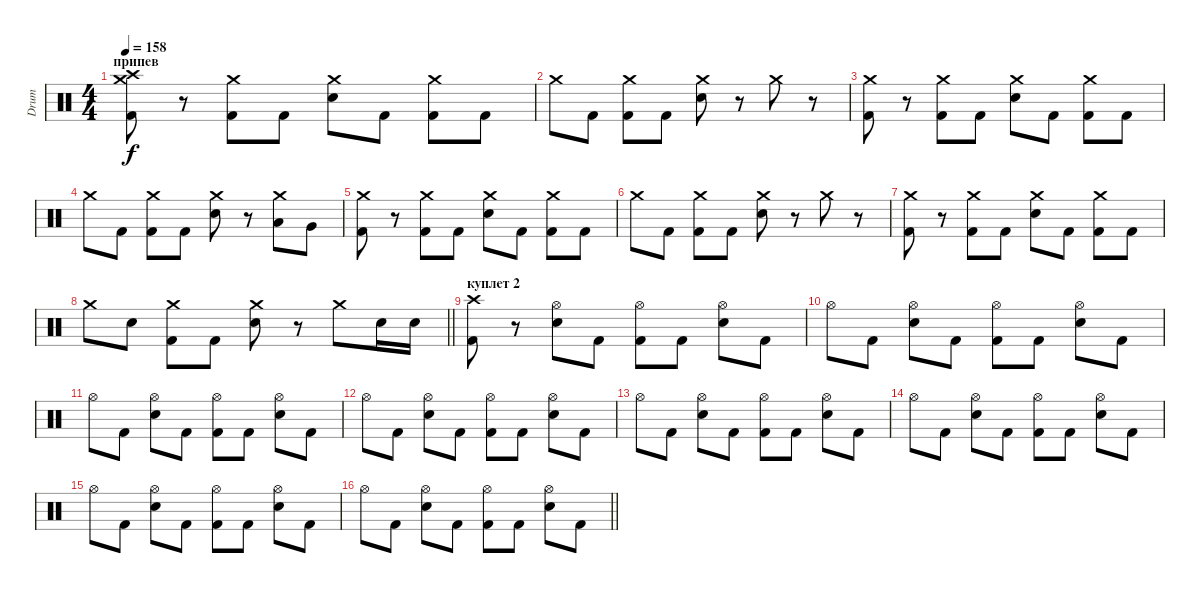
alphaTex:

\track ("Drum" "Drum") {instrument percussion}
\staff {score}
\articulation defaults
\ts (4 4)
\section ("" "припев")
\tempo 158
\clef neutral
\ks c
("Crash medium (hit)" "Crash high (hit)" "Kick (hit) 2").8{dy f} r.8 ("Crash medium (hit)" "Kick (hit) 2").8 "Kick (hit) 2".8 ("Crash medium (hit)" "Electric Snare (hit)").8 "Kick (hit) 2".8 ("Crash medium (hit)" "Kick (hit) 2").8 "Kick (hit) 2".8 |
"Crash medium (hit)".8 "Kick (hit) 2".8 ("Crash medium (hit)" "Kick (hit) 2").8 "Kick (hit) 2".8 ("Crash medium (hit)" "Electric Snare (hit)").8 r.8 "Crash medium (hit)".8 r.8 |
("Crash medium (hit)" "Kick (hit) 2").8 r.8 ("Crash medium (hit)" "Kick (hit) 2").8 "Kick (hit) 2".8 ("Crash medium (hit)" "Electric Snare (hit)").8 "Kick (hit) 2".8 ("Crash medium (hit)" "Kick (hit) 2").8 "Kick (hit) 2".8 |
"Crash medium (hit)".8 "Kick (hit) 2".8 ("Crash medium (hit)" "Kick (hit) 2").8 "Kick (hit) 2".8 ("Crash medium (hit)" "Electric Snare (hit)").8 r.8 ("Crash medium (hit)" "Low Tom (hit)").8 "Very Low Tom (hit)".8 |
("Crash medium (hit)" "Kick (hit) 2").8 r.8 ("Crash medium (hit)" "Kick (hit) 2").8 "Kick (hit) 2".8 ("Crash medium (hit)" "Electric Snare (hit)").8 "Kick (hit) 2".8 ("Crash medium (hit)" "Kick (hit) 2").8 "Kick (hit) 2".8 |
"Crash medium (hit)".8 "Kick (hit) 2".8 ("Crash medium (hit)" "Kick (hit) 2").8 "Kick (hit) 2".8 ("Crash medium (hit)" "Electric Snare (hit)").8 r.8 "Crash medium (hit)".8 r.8 |
("Crash medium (hit)" "Kick (hit) 2").8 r.8 ("Crash medium (hit)" "Kick (hit) 2").8 "Kick (hit) 2".8 ("Crash medium (hit)" "Electric Snare (hit)").8 "Kick (hit) 2".8 ("Crash medium (hit)" "Kick (hit) 2").8 "Kick (hit) 2".8 |
\barLineRight lightlight "Crash medium (hit)".8 "Electric Snare (hit)".8
("Crash medium (hit)" "Kick (hit) 2").8 "Kick (hit) 2".8 ("Crash medium (hit)" "Electric Snare (hit)").8 r.8 "Crash medium (hit)".8 "Electric Snare (hit)".16 "Electric Snare (hit)".16 |
\section ("" "куплет 2")
("Crash high (hit)" "Kick (hit) 2").8 r.8 ("Hi-Hat (open)" "Electric Snare (hit)").8 "Kick (hit) 2".8 ("Hi-Hat (open)" "Kick (hit) 2").8 "Kick (hit) 2".8 ("Hi-Hat (open)" "Electric Snare (hit)").8 "Kick (hit) 2".8 |
"Hi-Hat (open)".8 "Kick (hit) 2".8 ("Hi-Hat (open)" "Electric Snare (hit)").8 "Kick (hit) 2".8 ("Hi-Hat (open)" "Kick (hit) 2").8 "Kick (hit) 2".8 ("Hi-Hat (open)" "Electric Snare (hit)").8 "Kick (hit) 2".8 |
"Hi-Hat (open)".8 "Kick (hit) 2".8 ("Hi-Hat (open)" "Electric Snare (hit)").8 "Kick (hit) 2".8 ("Hi-Hat (open)" "Kick (hit) 2").8 "Kick (hit) 2".8 ("Hi-Hat (open)" "Electric Snare (hit)").8 "Kick (hit) 2".8 |
"Hi-Hat (open)".8 "Kick (hit) 2".8 ("Hi-Hat (open)" "Electric Snare (hit)").8 "Kick (hit) 2".8 ("Hi-Hat (open)" "Kick (hit) 2").8 "Kick (hit) 2".8 ("Hi-Hat (open)" "Electric Snare (hit)").8 "Kick (hit) 2".8 |
"Hi-Hat (open)".8 "Kick (hit) 2".8 ("Hi-Hat (open)" "Electric Snare (hit)").8 "Kick (hit) 2".8 ("Hi-Hat (open)" "Kick (hit) 2").8 "Kick (hit) 2".8 ("Hi-Hat (open)" "Electric Snare (hit)").8 "Kick (hit) 2".8 |
"Hi-Hat (open)".8 "Kick (hit) 2".8 ("Hi-Hat (open)" "Electric Snare (hit)").8 "Kick (hit) 2".8 ("Hi-Hat (open)" "Kick (hit) 2").8 "Kick (hit) 2".8 ("Hi-Hat (open)" "Electric Snare (hit)").8 "Kick (hit) 2".8 |
"Hi-Hat (open)".8 "Kick (hit) 2".8 ("Hi-Hat (open)" "Electric Snare (hit)").8 "Kick (hit) 2".8 ("Hi-Hat (open)" "Kick (hit) 2").8 "Kick (hit) 2".8 ("Hi-Hat (open)" "Electric Snare (hit)").8 "Kick (hit) 2".8 |
\barLineRight lightlight "Hi-Hat (open)".8 "Kick (hit) 2".8
("Hi-Hat (open)" "Electric Snare (hit)").8 "Kick (hit) 2".8 ("Hi-Hat (open)" "Kick (hit) 2").8 "Kick (hit) 2".8 ("Hi-Hat (open)" "Electric Snare (hit)").8 "Kick (hit) 2".8
